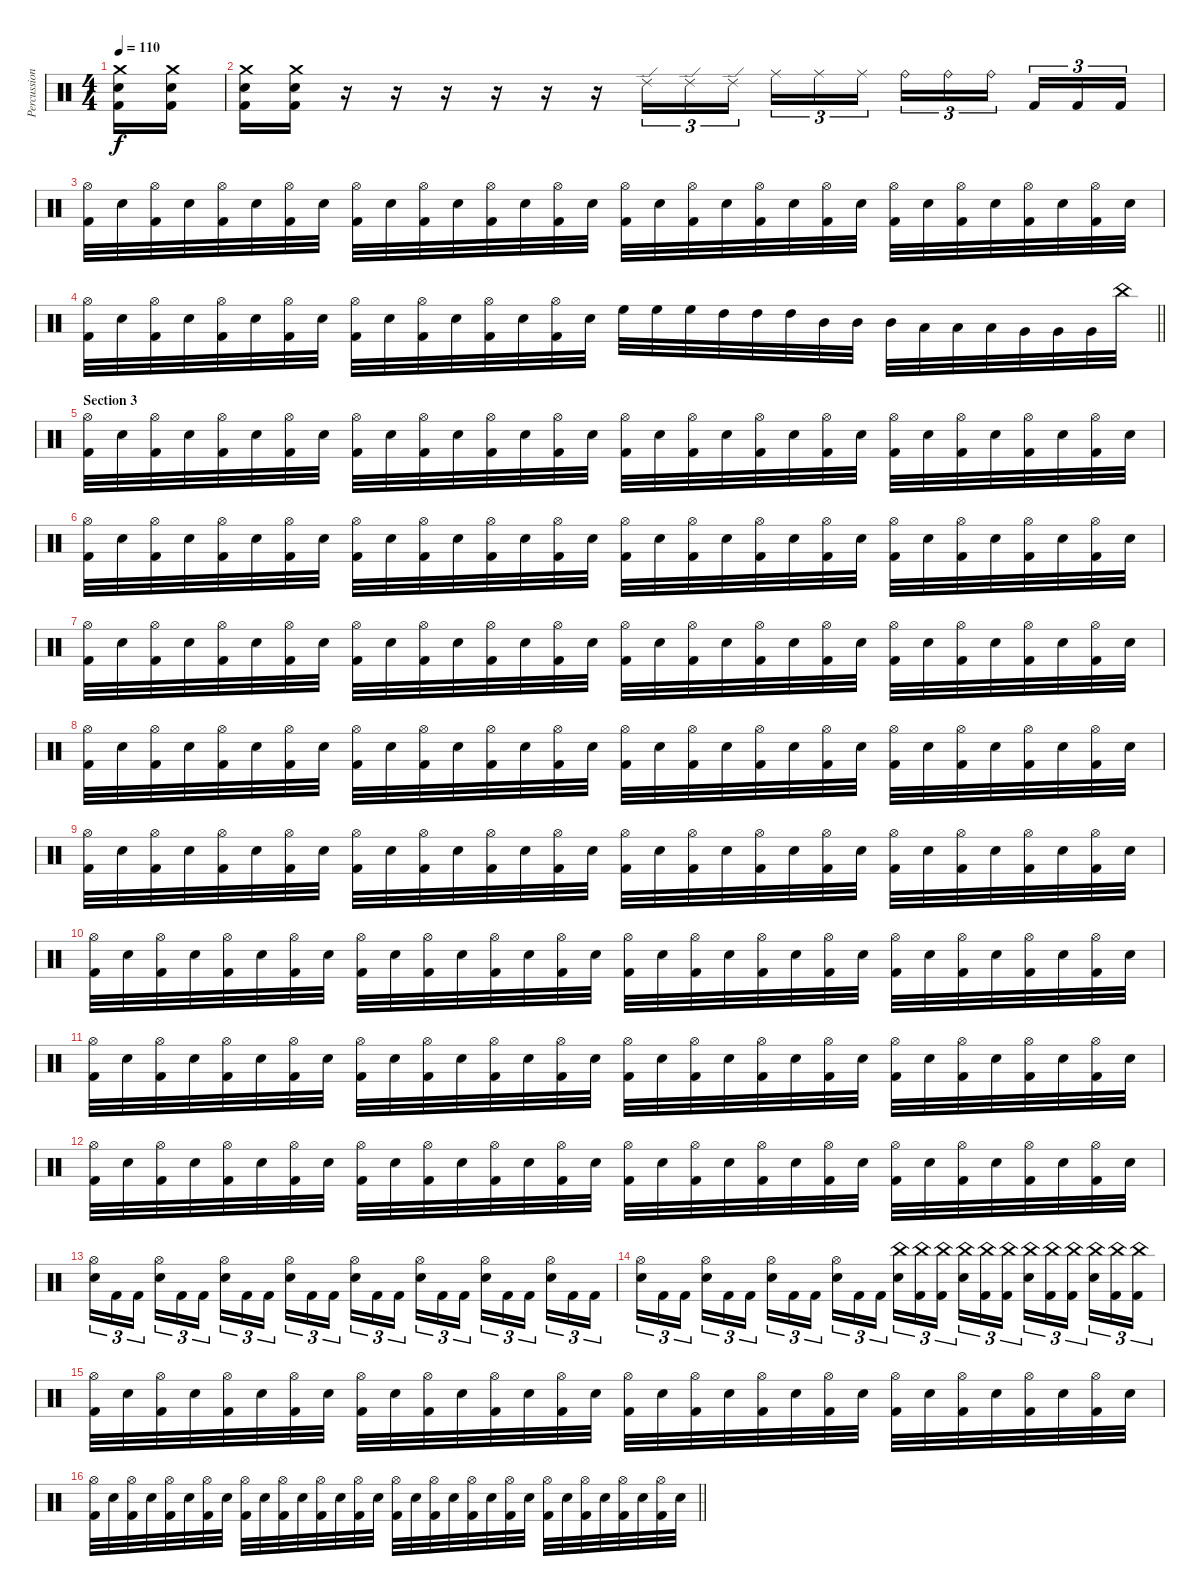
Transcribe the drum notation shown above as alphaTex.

\track ("Percussion" "Percussion") {instrument percussion}
\staff {score}
\articulation defaults
\ts (4 4)
\tempo 110
\clef neutral
\ks c
("Kick (hit) 2" "Snare (hit) 2" "Crash medium (hit)").16{dy f} ("Kick (hit) 2" "Snare (hit) 2" "Crash medium (hit)").16 |
("Kick (hit) 2" "Snare (hit) 2" "Crash medium (hit)").16 ("Kick (hit) 2" "Snare (hit) 2" "Crash medium (hit)").16 r.16 r.16 r.16 r.16 r.16 r.16 "Ride (edge) 2".16{tu (3 2)} "Ride (edge) 2".16{tu (3 2)} "Ride (edge) 2".16{tu (3 2) beam splitsecondary} "Ride (middle)".16{tu (3 2)} "Ride (middle)".16{tu (3 2)} "Ride (middle)".16{tu (3 2)} "Ride (bell)".16{tu (3 2)} "Ride (bell)".16{tu (3 2)} "Ride (bell)".16{tu (3 2) beam splitsecondary} "Kick (hit) 2".16{tu (3 2)} "Kick (hit) 2".16{tu (3 2)} "Kick (hit) 2".16{tu (3 2)} |
("Hi-Hat (open)" "Kick (hit) 2").32 "Snare (hit) 2".32 ("Hi-Hat (open)" "Kick (hit) 2").32 "Snare (hit) 2".32 ("Hi-Hat (open)" "Kick (hit) 2").32 "Snare (hit) 2".32 ("Hi-Hat (open)" "Kick (hit) 2").32 "Snare (hit) 2".32 ("Hi-Hat (open)" "Kick (hit) 2").32 "Snare (hit) 2".32 ("Hi-Hat (open)" "Kick (hit) 2").32 "Snare (hit) 2".32 ("Hi-Hat (open)" "Kick (hit) 2").32 "Snare (hit) 2".32 ("Hi-Hat (open)" "Kick (hit) 2").32 "Snare (hit) 2".32 ("Hi-Hat (open)" "Kick (hit) 2").32 "Snare (hit) 2".32 ("Hi-Hat (open)" "Kick (hit) 2").32 "Snare (hit) 2".32 ("Hi-Hat (open)" "Kick (hit) 2").32 "Snare (hit) 2".32 ("Hi-Hat (open)" "Kick (hit) 2").32 "Snare (hit) 2".32 ("Hi-Hat (open)" "Kick (hit) 2").32 "Snare (hit) 2".32 ("Hi-Hat (open)" "Kick (hit) 2").32 "Snare (hit) 2".32 ("Hi-Hat (open)" "Kick (hit) 2").32 "Snare (hit) 2".32 ("Hi-Hat (open)" "Kick (hit) 2").32 "Snare (hit) 2".32 |
\barLineRight lightlight
("Hi-Hat (open)" "Kick (hit) 2").32 "Snare (hit) 2".32 ("Hi-Hat (open)" "Kick (hit) 2").32 "Snare (hit) 2".32 ("Hi-Hat (open)" "Kick (hit) 2").32 "Snare (hit) 2".32 ("Hi-Hat (open)" "Kick (hit) 2").32 "Snare (hit) 2".32 ("Hi-Hat (open)" "Kick (hit) 2").32 "Snare (hit) 2".32 ("Hi-Hat (open)" "Kick (hit) 2").32 "Snare (hit) 2".32 ("Hi-Hat (open)" "Kick (hit) 2").32 "Snare (hit) 2".32 ("Hi-Hat (open)" "Kick (hit) 2").32 "Snare (hit) 2".32 "High Floor Tom (hit)".32 "High Floor Tom (hit)".32 "High Floor Tom (hit)".32 "High Tom (hit)".32 "High Tom (hit)".32 "High Tom (hit)".32 "Mid Tom (hit)".32 "Mid Tom (hit)".32 "Mid Tom (hit)".32 "Low Tom (hit)".32 "Low Tom (hit)".32 "Low Tom (hit)".32 "Very Low Tom (hit)".32 "Very Low Tom (hit)".32 "Very Low Tom (hit)".32 "China (hit)".32 |
\section ("" "Section 3")
("Hi-Hat (open)" "Kick (hit) 2").32 "Snare (hit) 2".32 ("Hi-Hat (open)" "Kick (hit) 2").32 "Snare (hit) 2".32 ("Hi-Hat (open)" "Kick (hit) 2").32 "Snare (hit) 2".32 ("Hi-Hat (open)" "Kick (hit) 2").32 "Snare (hit) 2".32 ("Hi-Hat (open)" "Kick (hit) 2").32 "Snare (hit) 2".32 ("Hi-Hat (open)" "Kick (hit) 2").32 "Snare (hit) 2".32 ("Hi-Hat (open)" "Kick (hit) 2").32 "Snare (hit) 2".32 ("Hi-Hat (open)" "Kick (hit) 2").32 "Snare (hit) 2".32 ("Hi-Hat (open)" "Kick (hit) 2").32 "Snare (hit) 2".32 ("Hi-Hat (open)" "Kick (hit) 2").32 "Snare (hit) 2".32 ("Hi-Hat (open)" "Kick (hit) 2").32 "Snare (hit) 2".32 ("Hi-Hat (open)" "Kick (hit) 2").32 "Snare (hit) 2".32 ("Hi-Hat (open)" "Kick (hit) 2").32 "Snare (hit) 2".32 ("Hi-Hat (open)" "Kick (hit) 2").32 "Snare (hit) 2".32 ("Hi-Hat (open)" "Kick (hit) 2").32 "Snare (hit) 2".32 ("Hi-Hat (open)" "Kick (hit) 2").32 "Snare (hit) 2".32 |
("Hi-Hat (open)" "Kick (hit) 2").32 "Snare (hit) 2".32 ("Hi-Hat (open)" "Kick (hit) 2").32 "Snare (hit) 2".32 ("Hi-Hat (open)" "Kick (hit) 2").32 "Snare (hit) 2".32 ("Hi-Hat (open)" "Kick (hit) 2").32 "Snare (hit) 2".32 ("Hi-Hat (open)" "Kick (hit) 2").32 "Snare (hit) 2".32 ("Hi-Hat (open)" "Kick (hit) 2").32 "Snare (hit) 2".32 ("Hi-Hat (open)" "Kick (hit) 2").32 "Snare (hit) 2".32 ("Hi-Hat (open)" "Kick (hit) 2").32 "Snare (hit) 2".32 ("Hi-Hat (open)" "Kick (hit) 2").32 "Snare (hit) 2".32 ("Hi-Hat (open)" "Kick (hit) 2").32 "Snare (hit) 2".32 ("Hi-Hat (open)" "Kick (hit) 2").32 "Snare (hit) 2".32 ("Hi-Hat (open)" "Kick (hit) 2").32 "Snare (hit) 2".32 ("Hi-Hat (open)" "Kick (hit) 2").32 "Snare (hit) 2".32 ("Hi-Hat (open)" "Kick (hit) 2").32 "Snare (hit) 2".32 ("Hi-Hat (open)" "Kick (hit) 2").32 "Snare (hit) 2".32 ("Hi-Hat (open)" "Kick (hit) 2").32 "Snare (hit) 2".32 |
("Hi-Hat (open)" "Kick (hit) 2").32 "Snare (hit) 2".32 ("Hi-Hat (open)" "Kick (hit) 2").32 "Snare (hit) 2".32 ("Hi-Hat (open)" "Kick (hit) 2").32 "Snare (hit) 2".32 ("Hi-Hat (open)" "Kick (hit) 2").32 "Snare (hit) 2".32 ("Hi-Hat (open)" "Kick (hit) 2").32 "Snare (hit) 2".32 ("Hi-Hat (open)" "Kick (hit) 2").32 "Snare (hit) 2".32 ("Hi-Hat (open)" "Kick (hit) 2").32 "Snare (hit) 2".32 ("Hi-Hat (open)" "Kick (hit) 2").32 "Snare (hit) 2".32 ("Hi-Hat (open)" "Kick (hit) 2").32 "Snare (hit) 2".32 ("Hi-Hat (open)" "Kick (hit) 2").32 "Snare (hit) 2".32 ("Hi-Hat (open)" "Kick (hit) 2").32 "Snare (hit) 2".32 ("Hi-Hat (open)" "Kick (hit) 2").32 "Snare (hit) 2".32 ("Hi-Hat (open)" "Kick (hit) 2").32 "Snare (hit) 2".32 ("Hi-Hat (open)" "Kick (hit) 2").32 "Snare (hit) 2".32 ("Hi-Hat (open)" "Kick (hit) 2").32 "Snare (hit) 2".32 ("Hi-Hat (open)" "Kick (hit) 2").32 "Snare (hit) 2".32 |
("Hi-Hat (open)" "Kick (hit) 2").32 "Snare (hit) 2".32 ("Hi-Hat (open)" "Kick (hit) 2").32 "Snare (hit) 2".32 ("Hi-Hat (open)" "Kick (hit) 2").32 "Snare (hit) 2".32 ("Hi-Hat (open)" "Kick (hit) 2").32 "Snare (hit) 2".32 ("Hi-Hat (open)" "Kick (hit) 2").32 "Snare (hit) 2".32 ("Hi-Hat (open)" "Kick (hit) 2").32 "Snare (hit) 2".32 ("Hi-Hat (open)" "Kick (hit) 2").32 "Snare (hit) 2".32 ("Hi-Hat (open)" "Kick (hit) 2").32 "Snare (hit) 2".32 ("Hi-Hat (open)" "Kick (hit) 2").32 "Snare (hit) 2".32 ("Hi-Hat (open)" "Kick (hit) 2").32 "Snare (hit) 2".32 ("Hi-Hat (open)" "Kick (hit) 2").32 "Snare (hit) 2".32 ("Hi-Hat (open)" "Kick (hit) 2").32 "Snare (hit) 2".32 ("Hi-Hat (open)" "Kick (hit) 2").32 "Snare (hit) 2".32 ("Hi-Hat (open)" "Kick (hit) 2").32 "Snare (hit) 2".32 ("Hi-Hat (open)" "Kick (hit) 2").32 "Snare (hit) 2".32 ("Hi-Hat (open)" "Kick (hit) 2").32 "Snare (hit) 2".32 |
("Hi-Hat (open)" "Kick (hit) 2").32 "Snare (hit) 2".32 ("Hi-Hat (open)" "Kick (hit) 2").32 "Snare (hit) 2".32 ("Hi-Hat (open)" "Kick (hit) 2").32 "Snare (hit) 2".32 ("Hi-Hat (open)" "Kick (hit) 2").32 "Snare (hit) 2".32 ("Hi-Hat (open)" "Kick (hit) 2").32 "Snare (hit) 2".32 ("Hi-Hat (open)" "Kick (hit) 2").32 "Snare (hit) 2".32 ("Hi-Hat (open)" "Kick (hit) 2").32 "Snare (hit) 2".32 ("Hi-Hat (open)" "Kick (hit) 2").32 "Snare (hit) 2".32 ("Hi-Hat (open)" "Kick (hit) 2").32 "Snare (hit) 2".32 ("Hi-Hat (open)" "Kick (hit) 2").32 "Snare (hit) 2".32 ("Hi-Hat (open)" "Kick (hit) 2").32 "Snare (hit) 2".32 ("Hi-Hat (open)" "Kick (hit) 2").32 "Snare (hit) 2".32 ("Hi-Hat (open)" "Kick (hit) 2").32 "Snare (hit) 2".32 ("Hi-Hat (open)" "Kick (hit) 2").32 "Snare (hit) 2".32 ("Hi-Hat (open)" "Kick (hit) 2").32 "Snare (hit) 2".32 ("Hi-Hat (open)" "Kick (hit) 2").32 "Snare (hit) 2".32 |
("Hi-Hat (open)" "Kick (hit) 2").32 "Snare (hit) 2".32 ("Hi-Hat (open)" "Kick (hit) 2").32 "Snare (hit) 2".32 ("Hi-Hat (open)" "Kick (hit) 2").32 "Snare (hit) 2".32 ("Hi-Hat (open)" "Kick (hit) 2").32 "Snare (hit) 2".32 ("Hi-Hat (open)" "Kick (hit) 2").32 "Snare (hit) 2".32 ("Hi-Hat (open)" "Kick (hit) 2").32 "Snare (hit) 2".32 ("Hi-Hat (open)" "Kick (hit) 2").32 "Snare (hit) 2".32 ("Hi-Hat (open)" "Kick (hit) 2").32 "Snare (hit) 2".32 ("Hi-Hat (open)" "Kick (hit) 2").32 "Snare (hit) 2".32 ("Hi-Hat (open)" "Kick (hit) 2").32 "Snare (hit) 2".32 ("Hi-Hat (open)" "Kick (hit) 2").32 "Snare (hit) 2".32 ("Hi-Hat (open)" "Kick (hit) 2").32 "Snare (hit) 2".32 ("Hi-Hat (open)" "Kick (hit) 2").32 "Snare (hit) 2".32 ("Hi-Hat (open)" "Kick (hit) 2").32 "Snare (hit) 2".32 ("Hi-Hat (open)" "Kick (hit) 2").32 "Snare (hit) 2".32 ("Hi-Hat (open)" "Kick (hit) 2").32 "Snare (hit) 2".32 |
("Hi-Hat (open)" "Kick (hit) 2").32 "Snare (hit) 2".32 ("Hi-Hat (open)" "Kick (hit) 2").32 "Snare (hit) 2".32 ("Hi-Hat (open)" "Kick (hit) 2").32 "Snare (hit) 2".32 ("Hi-Hat (open)" "Kick (hit) 2").32 "Snare (hit) 2".32 ("Hi-Hat (open)" "Kick (hit) 2").32 "Snare (hit) 2".32 ("Hi-Hat (open)" "Kick (hit) 2").32 "Snare (hit) 2".32 ("Hi-Hat (open)" "Kick (hit) 2").32 "Snare (hit) 2".32 ("Hi-Hat (open)" "Kick (hit) 2").32 "Snare (hit) 2".32 ("Hi-Hat (open)" "Kick (hit) 2").32 "Snare (hit) 2".32 ("Hi-Hat (open)" "Kick (hit) 2").32 "Snare (hit) 2".32 ("Hi-Hat (open)" "Kick (hit) 2").32 "Snare (hit) 2".32 ("Hi-Hat (open)" "Kick (hit) 2").32 "Snare (hit) 2".32 ("Hi-Hat (open)" "Kick (hit) 2").32 "Snare (hit) 2".32 ("Hi-Hat (open)" "Kick (hit) 2").32 "Snare (hit) 2".32 ("Hi-Hat (open)" "Kick (hit) 2").32 "Snare (hit) 2".32 ("Hi-Hat (open)" "Kick (hit) 2").32 "Snare (hit) 2".32 |
("Hi-Hat (open)" "Kick (hit) 2").32 "Snare (hit) 2".32 ("Hi-Hat (open)" "Kick (hit) 2").32 "Snare (hit) 2".32 ("Hi-Hat (open)" "Kick (hit) 2").32 "Snare (hit) 2".32 ("Hi-Hat (open)" "Kick (hit) 2").32 "Snare (hit) 2".32 ("Hi-Hat (open)" "Kick (hit) 2").32 "Snare (hit) 2".32 ("Hi-Hat (open)" "Kick (hit) 2").32 "Snare (hit) 2".32 ("Hi-Hat (open)" "Kick (hit) 2").32 "Snare (hit) 2".32 ("Hi-Hat (open)" "Kick (hit) 2").32 "Snare (hit) 2".32 ("Hi-Hat (open)" "Kick (hit) 2").32 "Snare (hit) 2".32 ("Hi-Hat (open)" "Kick (hit) 2").32 "Snare (hit) 2".32 ("Hi-Hat (open)" "Kick (hit) 2").32 "Snare (hit) 2".32 ("Hi-Hat (open)" "Kick (hit) 2").32 "Snare (hit) 2".32 ("Hi-Hat (open)" "Kick (hit) 2").32 "Snare (hit) 2".32 ("Hi-Hat (open)" "Kick (hit) 2").32 "Snare (hit) 2".32 ("Hi-Hat (open)" "Kick (hit) 2").32 "Snare (hit) 2".32 ("Hi-Hat (open)" "Kick (hit) 2").32 "Snare (hit) 2".32 |
("Hi-Hat (open)" "Snare (hit) 2").16{tu (3 2)} "Kick (hit) 2".16{tu (3 2)} "Kick (hit) 2".16{tu (3 2) beam splitsecondary} ("Hi-Hat (open)" "Snare (hit) 2").16{tu (3 2)} "Kick (hit) 2".16{tu (3 2)} "Kick (hit) 2".16{tu (3 2)} ("Hi-Hat (open)" "Snare (hit) 2").16{tu (3 2)} "Kick (hit) 2".16{tu (3 2)} "Kick (hit) 2".16{tu (3 2) beam splitsecondary} ("Hi-Hat (open)" "Snare (hit) 2").16{tu (3 2)} "Kick (hit) 2".16{tu (3 2)} "Kick (hit) 2".16{tu (3 2)} ("Hi-Hat (open)" "Snare (hit) 2").16{tu (3 2)} "Kick (hit) 2".16{tu (3 2)} "Kick (hit) 2".16{tu (3 2) beam splitsecondary} ("Hi-Hat (open)" "Snare (hit) 2").16{tu (3 2)} "Kick (hit) 2".16{tu (3 2)} "Kick (hit) 2".16{tu (3 2)} ("Hi-Hat (open)" "Snare (hit) 2").16{tu (3 2)} "Kick (hit) 2".16{tu (3 2)} "Kick (hit) 2".16{tu (3 2) beam splitsecondary} ("Hi-Hat (open)" "Snare (hit) 2").16{tu (3 2)} "Kick (hit) 2".16{tu (3 2)} "Kick (hit) 2".16{tu (3 2)} |
("Hi-Hat (open)" "Snare (hit) 2").16{tu (3 2)} "Kick (hit) 2".16{tu (3 2)} "Kick (hit) 2".16{tu (3 2) beam splitsecondary} ("Hi-Hat (open)" "Snare (hit) 2").16{tu (3 2)} "Kick (hit) 2".16{tu (3 2)} "Kick (hit) 2".16{tu (3 2)} ("Hi-Hat (open)" "Snare (hit) 2").16{tu (3 2)} "Kick (hit) 2".16{tu (3 2)} "Kick (hit) 2".16{tu (3 2) beam splitsecondary} ("Hi-Hat (open)" "Snare (hit) 2").16{tu (3 2)} "Kick (hit) 2".16{tu (3 2)} "Kick (hit) 2".16{tu (3 2)} ("China (hit)" "Snare (hit) 2").16{tu (3 2)} ("China (hit)" "Kick (hit) 2").16{tu (3 2)} ("China (hit)" "Kick (hit) 2").16{tu (3 2) beam splitsecondary} ("China (hit)" "Snare (hit) 2").16{tu (3 2)} ("China (hit)" "Kick (hit) 2").16{tu (3 2)} ("China (hit)" "Kick (hit) 2").16{tu (3 2)} ("China (hit)" "Snare (hit) 2").16{tu (3 2)} ("China (hit)" "Kick (hit) 2").16{tu (3 2)} ("China (hit)" "Kick (hit) 2").16{tu (3 2) beam splitsecondary} ("China (hit)" "Snare (hit) 2").16{tu (3 2)} ("China (hit)" "Kick (hit) 2").16{tu (3 2)} ("China (hit)" "Kick (hit) 2").16{tu (3 2)} |
("Hi-Hat (open)" "Kick (hit) 2").32 "Snare (hit) 2".32 ("Hi-Hat (open)" "Kick (hit) 2").32 "Snare (hit) 2".32 ("Hi-Hat (open)" "Kick (hit) 2").32 "Snare (hit) 2".32 ("Hi-Hat (open)" "Kick (hit) 2").32 "Snare (hit) 2".32 ("Hi-Hat (open)" "Kick (hit) 2").32 "Snare (hit) 2".32 ("Hi-Hat (open)" "Kick (hit) 2").32 "Snare (hit) 2".32 ("Hi-Hat (open)" "Kick (hit) 2").32 "Snare (hit) 2".32 ("Hi-Hat (open)" "Kick (hit) 2").32 "Snare (hit) 2".32 ("Hi-Hat (open)" "Kick (hit) 2").32 "Snare (hit) 2".32 ("Hi-Hat (open)" "Kick (hit) 2").32 "Snare (hit) 2".32 ("Hi-Hat (open)" "Kick (hit) 2").32 "Snare (hit) 2".32 ("Hi-Hat (open)" "Kick (hit) 2").32 "Snare (hit) 2".32 ("Hi-Hat (open)" "Kick (hit) 2").32 "Snare (hit) 2".32 ("Hi-Hat (open)" "Kick (hit) 2").32 "Snare (hit) 2".32 ("Hi-Hat (open)" "Kick (hit) 2").32 "Snare (hit) 2".32 ("Hi-Hat (open)" "Kick (hit) 2").32 "Snare (hit) 2".32 |
\barLineRight lightlight
("Hi-Hat (open)" "Kick (hit) 2").32 "Snare (hit) 2".32 ("Hi-Hat (open)" "Kick (hit) 2").32 "Snare (hit) 2".32 ("Hi-Hat (open)" "Kick (hit) 2").32 "Snare (hit) 2".32 ("Hi-Hat (open)" "Kick (hit) 2").32 "Snare (hit) 2".32 ("Hi-Hat (open)" "Kick (hit) 2").32 "Snare (hit) 2".32 ("Hi-Hat (open)" "Kick (hit) 2").32 "Snare (hit) 2".32 ("Hi-Hat (open)" "Kick (hit) 2").32 "Snare (hit) 2".32 ("Hi-Hat (open)" "Kick (hit) 2").32 "Snare (hit) 2".32 ("Hi-Hat (open)" "Kick (hit) 2").32 "Snare (hit) 2".32 ("Hi-Hat (open)" "Kick (hit) 2").32 "Snare (hit) 2".32 ("Hi-Hat (open)" "Kick (hit) 2").32 "Snare (hit) 2".32 ("Hi-Hat (open)" "Kick (hit) 2").32 "Snare (hit) 2".32 ("Hi-Hat (open)" "Kick (hit) 2").32 "Snare (hit) 2".32 ("Hi-Hat (open)" "Kick (hit) 2").32 "Snare (hit) 2".32 ("Hi-Hat (open)" "Kick (hit) 2").32 "Snare (hit) 2".32 ("Hi-Hat (open)" "Kick (hit) 2").32 "Snare (hit) 2".32
